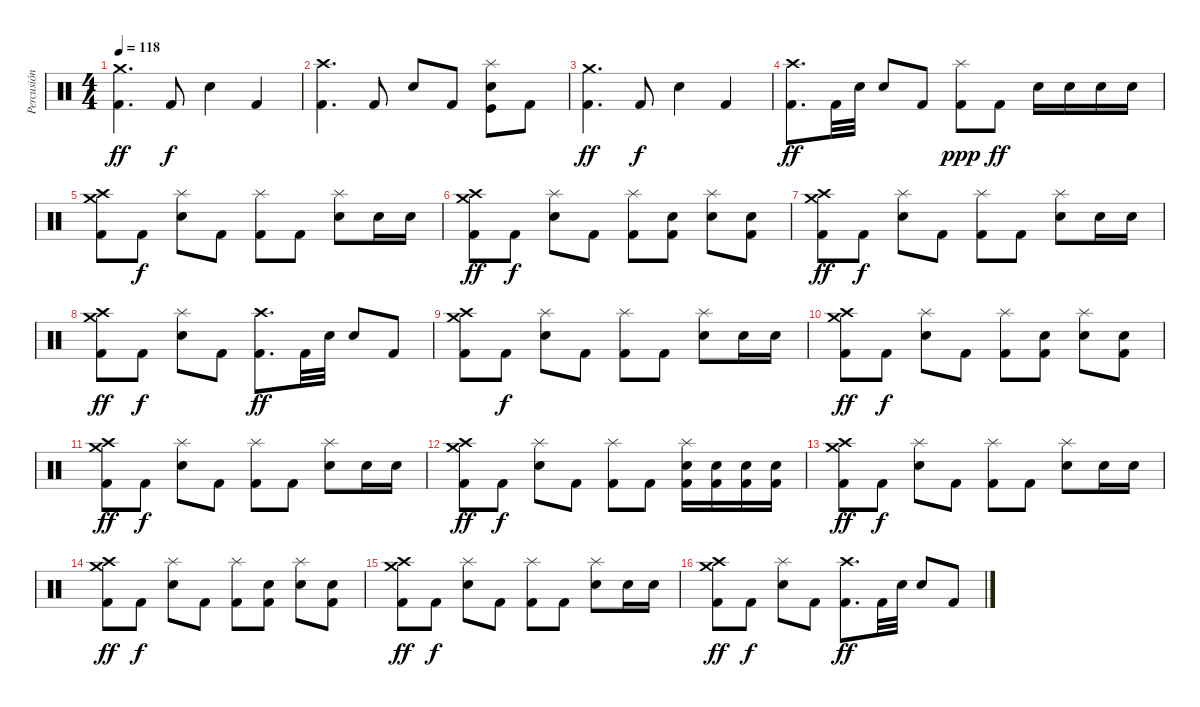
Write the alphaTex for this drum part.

\track ("Percusión" "Percusión") {instrument percussion}
\staff {score}
\articulation defaults
\ts (4 4)
\tempo 118
\clef neutral
\ks c
("Kick (hit) 2" "Crash medium (hit)").4{d dy ff} "Kick (hit) 2".8{dy f} "Snare (hit) 2".4 "Kick (hit) 2".4 |
("Kick (hit) 2" "Crash high (hit)").4{d} "Kick (hit) 2".8 "Snare (hit) 2".8 "Kick (hit) 2".8 ("Snare (hit) 2" "Kick (hit)" "Splash (hit)").8 "Kick (hit) 2".8 |
("Kick (hit) 2" "Crash medium (hit)").4{d dy ff} "Kick (hit) 2".8{dy f} "Snare (hit) 2".4 "Kick (hit) 2".4 |
("Kick (hit) 2" "Crash high (hit)").8{d dy ff} "Kick (hit) 2".32 "Snare (hit) 2".32 "Snare (hit) 2".8 "Kick (hit) 2".8 ("Kick (hit) 2" "Splash (hit)").8{dy ppp} "Kick (hit) 2".8{dy ff} "Snare (hit) 2".16 "Snare (hit) 2".16 "Snare (hit) 2".16 "Snare (hit) 2".16 |
("Kick (hit) 2" "Crash medium (hit)" "Crash high (hit)").8 "Kick (hit) 2".8{dy f} ("Snare (hit) 2" "Splash (hit)").8 "Kick (hit) 2".8 ("Kick (hit) 2" "Splash (hit)").8 "Kick (hit) 2".8 ("Snare (hit) 2" "Splash (hit)").8 "Snare (hit) 2".16 "Snare (hit) 2".16 |
("Kick (hit) 2" "Crash medium (hit)" "Crash high (hit)").8{dy ff} "Kick (hit) 2".8{dy f} ("Snare (hit) 2" "Splash (hit)").8 "Kick (hit) 2".8 ("Kick (hit) 2" "Splash (hit)").8 ("Kick (hit) 2" "Snare (hit) 2").8 ("Snare (hit) 2" "Splash (hit)").8 ("Kick (hit) 2" "Snare (hit) 2").8 |
("Kick (hit) 2" "Crash medium (hit)" "Crash high (hit)").8{dy ff} "Kick (hit) 2".8{dy f} ("Snare (hit) 2" "Splash (hit)").8 "Kick (hit) 2".8 ("Kick (hit) 2" "Splash (hit)").8 "Kick (hit) 2".8 ("Snare (hit) 2" "Splash (hit)").8 "Snare (hit) 2".16 "Snare (hit) 2".16 |
("Kick (hit) 2" "Crash medium (hit)" "Crash high (hit)").8{dy ff} "Kick (hit) 2".8{dy f} ("Snare (hit) 2" "Splash (hit)").8 "Kick (hit) 2".8 ("Kick (hit) 2" "Crash high (hit)").8{d dy ff} "Kick (hit) 2".32 "Snare (hit) 2".32 "Snare (hit) 2".8 "Kick (hit) 2".8 |
("Kick (hit) 2" "Crash medium (hit)" "Crash high (hit)").8 "Kick (hit) 2".8{dy f} ("Snare (hit) 2" "Splash (hit)").8 "Kick (hit) 2".8 ("Kick (hit) 2" "Splash (hit)").8 "Kick (hit) 2".8 ("Snare (hit) 2" "Splash (hit)").8 "Snare (hit) 2".16 "Snare (hit) 2".16 |
("Kick (hit) 2" "Crash medium (hit)" "Crash high (hit)").8{dy ff} "Kick (hit) 2".8{dy f} ("Snare (hit) 2" "Splash (hit)").8 "Kick (hit) 2".8 ("Kick (hit) 2" "Splash (hit)").8 ("Kick (hit) 2" "Snare (hit) 2").8 ("Snare (hit) 2" "Splash (hit)").8 ("Kick (hit) 2" "Snare (hit) 2").8 |
("Kick (hit) 2" "Crash medium (hit)" "Crash high (hit)").8{dy ff} "Kick (hit) 2".8{dy f} ("Snare (hit) 2" "Splash (hit)").8 "Kick (hit) 2".8 ("Kick (hit) 2" "Splash (hit)").8 "Kick (hit) 2".8 ("Snare (hit) 2" "Splash (hit)").8 "Snare (hit) 2".16 "Snare (hit) 2".16 |
("Kick (hit) 2" "Crash medium (hit)" "Crash high (hit)").8{dy ff} "Kick (hit) 2".8{dy f} ("Snare (hit) 2" "Splash (hit)").8 "Kick (hit) 2".8 ("Kick (hit) 2" "Splash (hit)").8 "Kick (hit) 2".8 ("Snare (hit) 2" "Splash (hit)" "Kick (hit) 2").16 ("Snare (hit) 2" "Kick (hit) 2").16 ("Snare (hit) 2" "Kick (hit) 2").16 ("Snare (hit) 2" "Kick (hit) 2").16 |
("Kick (hit) 2" "Crash medium (hit)" "Crash high (hit)").8{dy ff} "Kick (hit) 2".8{dy f} ("Snare (hit) 2" "Splash (hit)").8 "Kick (hit) 2".8 ("Kick (hit) 2" "Splash (hit)").8 "Kick (hit) 2".8 ("Snare (hit) 2" "Splash (hit)").8 "Snare (hit) 2".16 "Snare (hit) 2".16 |
("Kick (hit) 2" "Crash medium (hit)" "Crash high (hit)").8{dy ff} "Kick (hit) 2".8{dy f} ("Snare (hit) 2" "Splash (hit)").8 "Kick (hit) 2".8 ("Kick (hit) 2" "Splash (hit)").8 ("Kick (hit) 2" "Snare (hit) 2").8 ("Snare (hit) 2" "Splash (hit)").8 ("Kick (hit) 2" "Snare (hit) 2").8 |
("Kick (hit) 2" "Crash medium (hit)" "Crash high (hit)").8{dy ff} "Kick (hit) 2".8{dy f} ("Snare (hit) 2" "Splash (hit)").8 "Kick (hit) 2".8 ("Kick (hit) 2" "Splash (hit)").8 "Kick (hit) 2".8 ("Snare (hit) 2" "Splash (hit)").8 "Snare (hit) 2".16 "Snare (hit) 2".16 |
("Kick (hit) 2" "Crash medium (hit)" "Crash high (hit)").8{dy ff} "Kick (hit) 2".8{dy f} ("Snare (hit) 2" "Splash (hit)").8 "Kick (hit) 2".8 ("Kick (hit) 2" "Crash high (hit)").8{d dy ff} "Kick (hit) 2".32 "Snare (hit) 2".32 "Snare (hit) 2".8 "Kick (hit) 2".8
